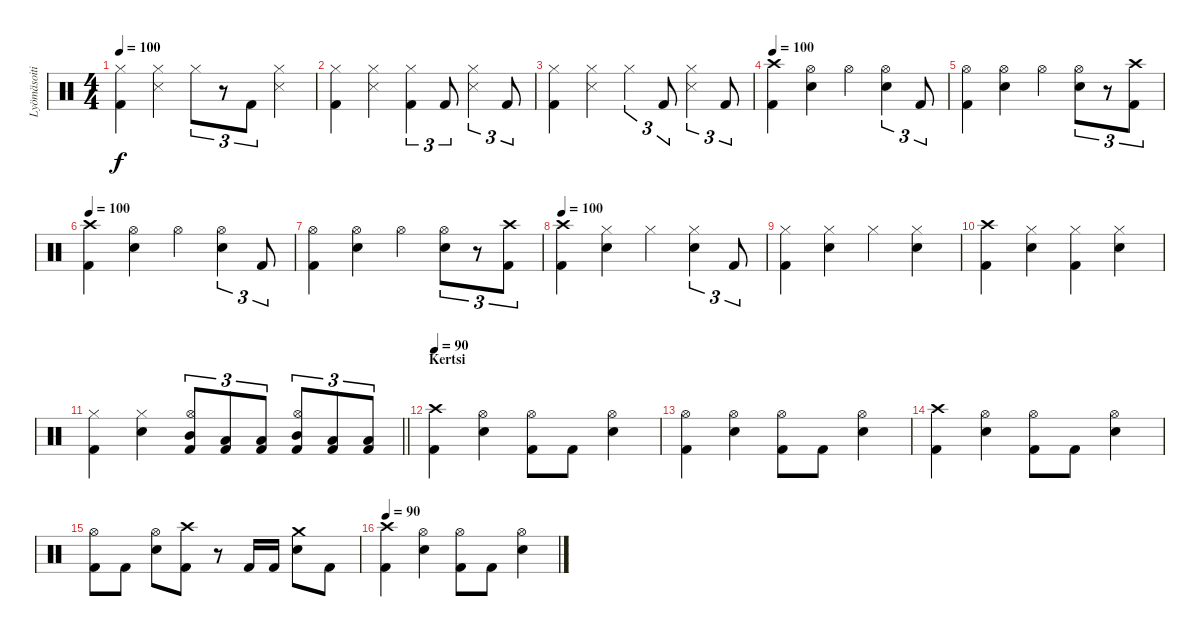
\track ("Lyömäsoitin" "Lyömäsoiti") {instrument percussion}
\staff {score}
\articulation defaults
\ts (4 4)
\tempo 100
\clef neutral
\ks c
("Hi-Hat (closed)" "Kick (hit) 2").4{dy f} ("Hi-Hat (closed)" "Snare (side stick) 3").4 "Hi-Hat (closed)".8{tu (3 2)} r.8{tu (3 2)} "Kick (hit) 2".8{tu (3 2)} ("Hi-Hat (closed)" "Snare (side stick) 3").4 |
("Hi-Hat (closed)" "Kick (hit) 2").4 ("Hi-Hat (closed)" "Snare (side stick) 3").4 ("Hi-Hat (closed)" "Kick (hit) 2").4{tu (3 2)} "Kick (hit) 2".8{tu (3 2)} ("Hi-Hat (closed)" "Snare (side stick) 3").4{tu (3 2)} "Kick (hit) 2".8{tu (3 2)} |
("Hi-Hat (closed)" "Kick (hit) 2").4 ("Hi-Hat (closed)" "Snare (side stick) 3").4 "Hi-Hat (closed)".4{tu (3 2)} "Kick (hit) 2".8{tu (3 2)} ("Hi-Hat (closed)" "Snare (side stick) 3").4{tu (3 2)} "Kick (hit) 2".8{tu (3 2)} |
\tempo 100
("Crash high (hit)" "Kick (hit) 2").4 ("Hi-Hat (open)" "Snare (hit) 2").4 "Hi-Hat (open)".4 ("Hi-Hat (open)" "Snare (hit) 2").4{tu (3 2)} "Kick (hit) 2".8{tu (3 2)} |
("Hi-Hat (open)" "Kick (hit) 2").4 ("Hi-Hat (open)" "Snare (hit) 2").4 "Hi-Hat (open)".4 ("Hi-Hat (open)" "Snare (hit) 2").8{tu (3 2)} r.8{tu (3 2)} ("Crash high (hit)" "Kick (hit) 2").8{tu (3 2)} |
\tempo 100
("Crash high (hit)" "Kick (hit) 2").4 ("Hi-Hat (open)" "Snare (hit) 2").4 "Hi-Hat (open)".4 ("Hi-Hat (open)" "Snare (hit) 2").4{tu (3 2)} "Kick (hit) 2".8{tu (3 2)} |
("Hi-Hat (open)" "Kick (hit) 2").4 ("Hi-Hat (open)" "Snare (hit) 2").4 "Hi-Hat (open)".4 ("Hi-Hat (open)" "Snare (hit) 2").8{tu (3 2)} r.8{tu (3 2)} ("Crash high (hit)" "Kick (hit) 2").8{tu (3 2)} |
\tempo 100
("Crash high (hit)" "Kick (hit) 2").4 ("Hi-Hat (closed)" "Snare (hit) 2").4 "Hi-Hat (closed)".4 ("Hi-Hat (closed)" "Snare (hit) 2").4{tu (3 2)} "Kick (hit) 2".8{tu (3 2)} |
("Hi-Hat (closed)" "Kick (hit) 2").4 ("Hi-Hat (closed)" "Snare (hit) 2").4 "Hi-Hat (closed)".4 ("Hi-Hat (closed)" "Snare (hit) 2").4 |
("Crash high (hit)" "Kick (hit) 2").4 ("Hi-Hat (closed)" "Snare (hit) 2").4 ("Hi-Hat (closed)" "Kick (hit) 2").4 ("Hi-Hat (closed)" "Snare (hit) 2").4 |
\barLineRight lightlight
("Hi-Hat (closed)" "Kick (hit) 2").4 ("Hi-Hat (closed)" "Snare (hit) 2").4 ("Hi-Hat (open)" "Mid Tom (hit)" "Kick (hit) 2").8{tu (3 2)} ("Low Tom (hit)" "Kick (hit) 2").8{tu (3 2)} ("Low Floor Tom (hit)" "Kick (hit) 2").8{tu (3 2)} ("Hi-Hat (open)" "Mid Tom (hit)" "Kick (hit) 2").8{tu (3 2)} ("Low Tom (hit)" "Kick (hit) 2").8{tu (3 2)} ("Low Floor Tom (hit)" "Kick (hit) 2").8{tu (3 2)} |
\section ("" "Kertsi")
\tempo 90
("Crash high (hit)" "Kick (hit) 2").4 ("Hi-Hat (open)" "Snare (hit) 2").4 ("Hi-Hat (open)" "Kick (hit) 2").8 "Kick (hit) 2".8 ("Hi-Hat (open)" "Snare (hit) 2").4 |
("Hi-Hat (open)" "Kick (hit) 2").4 ("Hi-Hat (open)" "Snare (hit) 2").4 ("Hi-Hat (open)" "Kick (hit) 2").8 "Kick (hit) 2".8 ("Hi-Hat (open)" "Snare (hit) 2").4 |
("Crash high (hit)" "Kick (hit) 2").4 ("Hi-Hat (open)" "Snare (hit) 2").4 ("Hi-Hat (open)" "Kick (hit) 2").8 "Kick (hit) 2".8 ("Hi-Hat (open)" "Snare (hit) 2").4 |
("Hi-Hat (open)" "Kick (hit) 2").8 "Kick (hit) 2".8 ("Hi-Hat (open)" "Snare (hit) 2").8 ("Crash high (hit)" "Kick (hit) 2").8 r.8 "Kick (hit) 2".16 "Kick (hit) 2".16 ("Crash medium (hit)" "Snare (hit) 2").8 "Kick (hit) 2".8 |
\tempo 90
("Crash high (hit)" "Kick (hit) 2").4 ("Hi-Hat (open)" "Snare (hit) 2").4 ("Hi-Hat (open)" "Kick (hit) 2").8 "Kick (hit) 2".8 ("Hi-Hat (open)" "Snare (hit) 2").4
